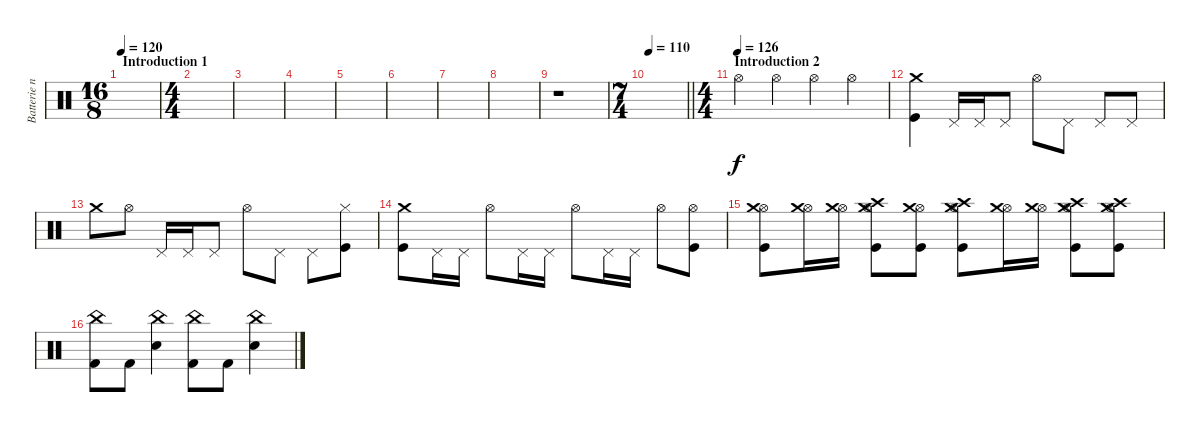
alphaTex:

\track ("Batterie n°3" "Batterie n") {instrument percussion}
\staff {score}
\articulation defaults
\ts (16 8)
\section ("" "Introduction 1")
\tempo 120
\tempo 126
\tempo 120
\clef neutral
\ks c
|
\ts (4 4)
|
|
|
|
|
|
|
r.1 |
\ts (7 4)
\tempo 110
\barLineRight lightlight
|
\ts (4 4)
\section ("" "Introduction 2")
\tempo (126)
"Hi-Hat (open)".4 "Hi-Hat (open)".4 "Hi-Hat (open)".4 "Hi-Hat (open)".4 |
("Crash medium (hit)" "Kick (hit)").4 "Pedal Hi-Hat (hit)".16 "Pedal Hi-Hat (hit)".16 "Pedal Hi-Hat (hit)".8 "Hi-Hat (open)".8 "Pedal Hi-Hat (hit)".8 "Pedal Hi-Hat (hit)".8 "Pedal Hi-Hat (hit)".8 |
"Crash medium (hit)".8 "Hi-Hat (open)".8 "Pedal Hi-Hat (hit)".16 "Pedal Hi-Hat (hit)".16 "Pedal Hi-Hat (hit)".8 "Hi-Hat (open)".8 "Pedal Hi-Hat (hit)".8 "Pedal Hi-Hat (hit)".8 ("Hi-Hat (closed)" "Kick (hit)").8 |
("Crash medium (hit)" "Kick (hit)").8 "Pedal Hi-Hat (hit)".16 "Pedal Hi-Hat (hit)".16 "Hi-Hat (open)".8 "Pedal Hi-Hat (hit)".16 "Pedal Hi-Hat (hit)".16 "Hi-Hat (open)".8 "Pedal Hi-Hat (hit)".16 "Pedal Hi-Hat (hit)".16 "Hi-Hat (open)".8 ("Hi-Hat (open)" "Kick (hit)").8 |
("Hi-Hat (open)" "Crash medium (hit)" "Kick (hit)").8 ("Hi-Hat (open)" "Crash medium (hit)").16 ("Hi-Hat (open)" "Crash medium (hit)").16 ("Hi-Hat (open)" "Crash high (hit)" "Crash medium (hit)" "Kick (hit)").8 ("Hi-Hat (open)" "Crash medium (hit)" "Kick (hit)").8 ("Hi-Hat (open)" "Crash high (hit)" "Crash medium (hit)" "Kick (hit)").8 ("Hi-Hat (open)" "Crash medium (hit)").16 ("Hi-Hat (open)" "Crash medium (hit)").16 ("Hi-Hat (open)" "Crash high (hit)" "Crash medium (hit)" "Kick (hit)").8 ("Hi-Hat (open)" "Crash high (hit)" "Crash medium (hit)" "Kick (hit)").8 |
("China (hit)" "Kick (hit) 2").8 "Kick (hit) 2".8 ("China (hit)" "Snare (hit) 2").4 ("China (hit)" "Kick (hit) 2").8 "Kick (hit) 2".8 ("China (hit)" "Snare (hit) 2").4
